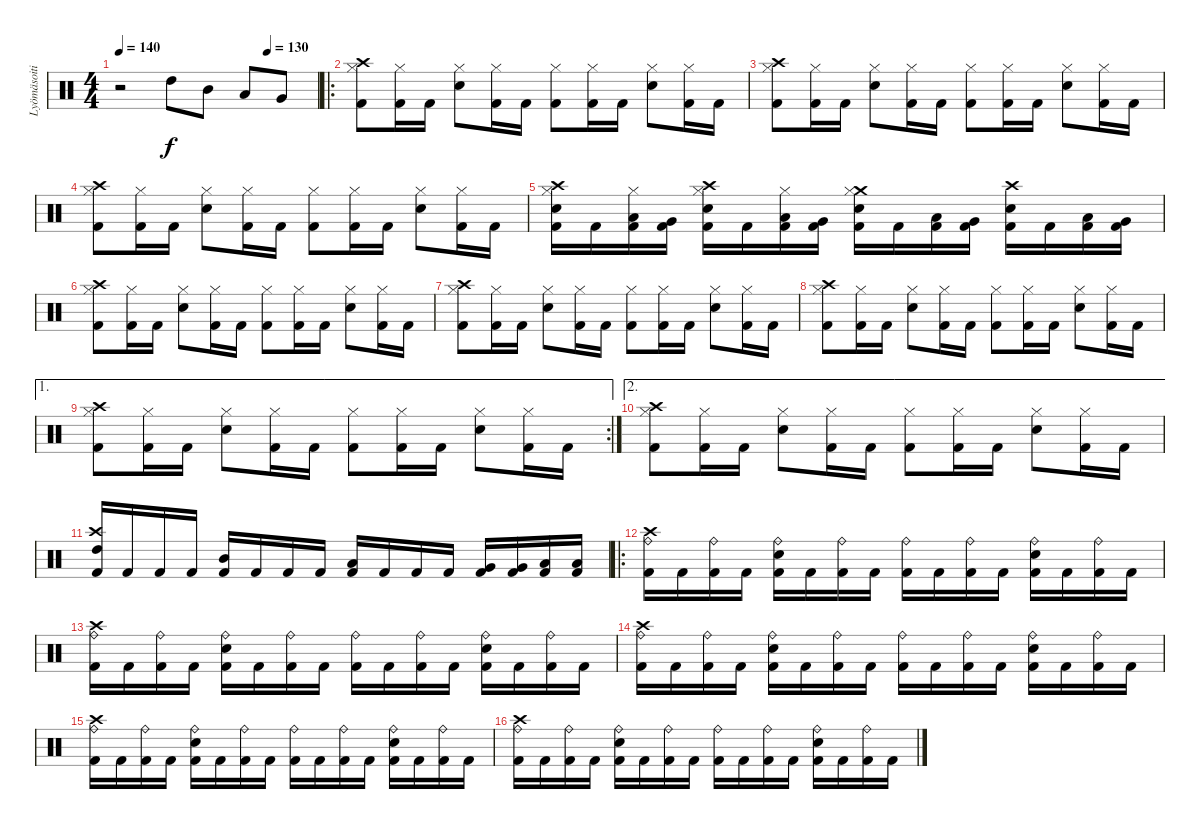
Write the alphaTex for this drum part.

\track ("Lyömäsoitin" "Lyömäsoiti") {instrument percussion}
\staff {score}
\articulation defaults
\ts (4 4)
\tempo 140
\tempo (130 0.75)
\tempo 140
\clef neutral
\ks c
r.2{dy f} "High Tom (hit)".8 "Mid Tom (hit)".8 "Low Tom (hit)".8 "Very Low Tom (hit)".8 |
\ro
("Crash high (hit)" "Hi-Hat (closed)" "Kick (hit) 2").8 ("Hi-Hat (closed)" "Kick (hit) 2").16 "Kick (hit) 2".16 ("Hi-Hat (closed)" "Electric Snare (hit)").8 ("Hi-Hat (closed)" "Kick (hit) 2").16 "Kick (hit) 2".16 ("Hi-Hat (closed)" "Kick (hit) 2").8 ("Hi-Hat (closed)" "Kick (hit) 2").16 "Kick (hit) 2".16 ("Hi-Hat (closed)" "Electric Snare (hit)").8 ("Hi-Hat (closed)" "Kick (hit) 2").16 "Kick (hit) 2".16 |
("Crash high (hit)" "Hi-Hat (closed)" "Kick (hit) 2").8 ("Hi-Hat (closed)" "Kick (hit) 2").16 "Kick (hit) 2".16 ("Hi-Hat (closed)" "Electric Snare (hit)").8 ("Hi-Hat (closed)" "Kick (hit) 2").16 "Kick (hit) 2".16 ("Hi-Hat (closed)" "Kick (hit) 2").8 ("Hi-Hat (closed)" "Kick (hit) 2").16 "Kick (hit) 2".16 ("Hi-Hat (closed)" "Electric Snare (hit)").8 ("Hi-Hat (closed)" "Kick (hit) 2").16 "Kick (hit) 2".16 |
("Crash high (hit)" "Hi-Hat (closed)" "Kick (hit) 2").8 ("Hi-Hat (closed)" "Kick (hit) 2").16 "Kick (hit) 2".16 ("Hi-Hat (closed)" "Electric Snare (hit)").8 ("Hi-Hat (closed)" "Kick (hit) 2").16 "Kick (hit) 2".16 ("Hi-Hat (closed)" "Kick (hit) 2").8 ("Hi-Hat (closed)" "Kick (hit) 2").16 "Kick (hit) 2".16 ("Hi-Hat (closed)" "Electric Snare (hit)").8 ("Hi-Hat (closed)" "Kick (hit) 2").16 "Kick (hit) 2".16 |
("Crash high (hit)" "Hi-Hat (closed)" "Electric Snare (hit)" "Kick (hit) 2").16 "Kick (hit) 2".16 ("Hi-Hat (closed)" "Low Tom (hit)" "Kick (hit) 2").16 ("Very Low Tom (hit)" "Kick (hit) 2").16 ("Crash high (hit)" "Hi-Hat (closed)" "Electric Snare (hit)" "Kick (hit) 2").16 "Kick (hit) 2".16 ("Hi-Hat (closed)" "Low Tom (hit)" "Kick (hit) 2").16 ("Very Low Tom (hit)" "Kick (hit) 2").16 ("Crash medium (hit)" "Hi-Hat (closed)" "Electric Snare (hit)" "Kick (hit) 2").16 "Kick (hit) 2".16 ("Low Tom (hit)" "Kick (hit) 2").16 ("Very Low Tom (hit)" "Kick (hit) 2").16 ("Crash high (hit)" "Electric Snare (hit)" "Kick (hit) 2").16 "Kick (hit) 2".16 ("Low Tom (hit)" "Kick (hit) 2").16 ("Very Low Tom (hit)" "Kick (hit) 2").16 |
("Crash high (hit)" "Hi-Hat (closed)" "Kick (hit) 2").8 ("Hi-Hat (closed)" "Kick (hit) 2").16 "Kick (hit) 2".16 ("Hi-Hat (closed)" "Electric Snare (hit)").8 ("Hi-Hat (closed)" "Kick (hit) 2").16 "Kick (hit) 2".16 ("Hi-Hat (closed)" "Kick (hit) 2").8 ("Hi-Hat (closed)" "Kick (hit) 2").16 "Kick (hit) 2".16 ("Hi-Hat (closed)" "Electric Snare (hit)").8 ("Hi-Hat (closed)" "Kick (hit) 2").16 "Kick (hit) 2".16 |
("Crash high (hit)" "Hi-Hat (closed)" "Kick (hit) 2").8 ("Hi-Hat (closed)" "Kick (hit) 2").16 "Kick (hit) 2".16 ("Hi-Hat (closed)" "Electric Snare (hit)").8 ("Hi-Hat (closed)" "Kick (hit) 2").16 "Kick (hit) 2".16 ("Hi-Hat (closed)" "Kick (hit) 2").8 ("Hi-Hat (closed)" "Kick (hit) 2").16 "Kick (hit) 2".16 ("Hi-Hat (closed)" "Electric Snare (hit)").8 ("Hi-Hat (closed)" "Kick (hit) 2").16 "Kick (hit) 2".16 |
("Crash high (hit)" "Hi-Hat (closed)" "Kick (hit) 2").8 ("Hi-Hat (closed)" "Kick (hit) 2").16 "Kick (hit) 2".16 ("Hi-Hat (closed)" "Electric Snare (hit)").8 ("Hi-Hat (closed)" "Kick (hit) 2").16 "Kick (hit) 2".16 ("Hi-Hat (closed)" "Kick (hit) 2").8 ("Hi-Hat (closed)" "Kick (hit) 2").16 "Kick (hit) 2".16 ("Hi-Hat (closed)" "Electric Snare (hit)").8 ("Hi-Hat (closed)" "Kick (hit) 2").16 "Kick (hit) 2".16 |
\ae 1
\rc 2
("Crash high (hit)" "Hi-Hat (closed)" "Kick (hit) 2").8 ("Hi-Hat (closed)" "Kick (hit) 2").16 "Kick (hit) 2".16 ("Hi-Hat (closed)" "Electric Snare (hit)").8 ("Hi-Hat (closed)" "Kick (hit) 2").16 "Kick (hit) 2".16 ("Hi-Hat (closed)" "Kick (hit) 2").8 ("Hi-Hat (closed)" "Kick (hit) 2").16 "Kick (hit) 2".16 ("Hi-Hat (closed)" "Electric Snare (hit)").8 ("Hi-Hat (closed)" "Kick (hit) 2").16 "Kick (hit) 2".16 |
\ae 2
("Crash high (hit)" "Hi-Hat (closed)" "Kick (hit) 2").8 ("Hi-Hat (closed)" "Kick (hit) 2").16 "Kick (hit) 2".16 ("Hi-Hat (closed)" "Electric Snare (hit)").8 ("Hi-Hat (closed)" "Kick (hit) 2").16 "Kick (hit) 2".16 ("Hi-Hat (closed)" "Kick (hit) 2").8 ("Hi-Hat (closed)" "Kick (hit) 2").16 "Kick (hit) 2".16 ("Hi-Hat (closed)" "Electric Snare (hit)").8 ("Hi-Hat (closed)" "Kick (hit) 2").16 "Kick (hit) 2".16 |
("Crash high (hit)" "High Tom (hit)" "Kick (hit) 2").16 "Kick (hit) 2".16 "Kick (hit) 2".16 "Kick (hit) 2".16 ("Mid Tom (hit)" "Kick (hit) 2").16 "Kick (hit) 2".16 "Kick (hit) 2".16 "Kick (hit) 2".16 ("Low Tom (hit)" "Kick (hit) 2").16 "Kick (hit) 2".16 "Kick (hit) 2".16 "Kick (hit) 2".16 ("Very Low Tom (hit)" "Kick (hit) 2").16 ("Very Low Tom (hit)" "Kick (hit) 2").16 ("Low Floor Tom (hit)" "Kick (hit) 2").16 ("Low Floor Tom (hit)" "Kick (hit) 2").16 |
\ro
("Crash high (hit)" "Ride (bell)" "Kick (hit) 2").16 "Kick (hit) 2".16 ("Ride (bell)" "Kick (hit) 2").16 "Kick (hit) 2".16 ("Ride (bell)" "Electric Snare (hit)" "Kick (hit) 2").16 "Kick (hit) 2".16 ("Ride (bell)" "Kick (hit) 2").16 "Kick (hit) 2".16 ("Ride (bell)" "Kick (hit) 2").16 "Kick (hit) 2".16 ("Ride (bell)" "Kick (hit) 2").16 "Kick (hit) 2".16 ("Ride (bell)" "Electric Snare (hit)" "Kick (hit) 2").16 "Kick (hit) 2".16 ("Ride (bell)" "Kick (hit) 2").16 "Kick (hit) 2".16 |
("Crash high (hit)" "Ride (bell)" "Kick (hit) 2").16 "Kick (hit) 2".16 ("Ride (bell)" "Kick (hit) 2").16 "Kick (hit) 2".16 ("Ride (bell)" "Electric Snare (hit)" "Kick (hit) 2").16 "Kick (hit) 2".16 ("Ride (bell)" "Kick (hit) 2").16 "Kick (hit) 2".16 ("Ride (bell)" "Kick (hit) 2").16 "Kick (hit) 2".16 ("Ride (bell)" "Kick (hit) 2").16 "Kick (hit) 2".16 ("Ride (bell)" "Electric Snare (hit)" "Kick (hit) 2").16 "Kick (hit) 2".16 ("Ride (bell)" "Kick (hit) 2").16 "Kick (hit) 2".16 |
("Crash high (hit)" "Ride (bell)" "Kick (hit) 2").16 "Kick (hit) 2".16 ("Ride (bell)" "Kick (hit) 2").16 "Kick (hit) 2".16 ("Ride (bell)" "Electric Snare (hit)" "Kick (hit) 2").16 "Kick (hit) 2".16 ("Ride (bell)" "Kick (hit) 2").16 "Kick (hit) 2".16 ("Ride (bell)" "Kick (hit) 2").16 "Kick (hit) 2".16 ("Ride (bell)" "Kick (hit) 2").16 "Kick (hit) 2".16 ("Ride (bell)" "Electric Snare (hit)" "Kick (hit) 2").16 "Kick (hit) 2".16 ("Ride (bell)" "Kick (hit) 2").16 "Kick (hit) 2".16 |
("Crash high (hit)" "Ride (bell)" "Kick (hit) 2").16 "Kick (hit) 2".16 ("Ride (bell)" "Kick (hit) 2").16 "Kick (hit) 2".16 ("Ride (bell)" "Electric Snare (hit)" "Kick (hit) 2").16 "Kick (hit) 2".16 ("Ride (bell)" "Kick (hit) 2").16 "Kick (hit) 2".16 ("Ride (bell)" "Kick (hit) 2").16 "Kick (hit) 2".16 ("Ride (bell)" "Kick (hit) 2").16 "Kick (hit) 2".16 ("Ride (bell)" "Electric Snare (hit)" "Kick (hit) 2").16 "Kick (hit) 2".16 ("Ride (bell)" "Kick (hit) 2").16 "Kick (hit) 2".16 |
("Crash high (hit)" "Ride (bell)" "Kick (hit) 2").16 "Kick (hit) 2".16 ("Ride (bell)" "Kick (hit) 2").16 "Kick (hit) 2".16 ("Ride (bell)" "Electric Snare (hit)" "Kick (hit) 2").16 "Kick (hit) 2".16 ("Ride (bell)" "Kick (hit) 2").16 "Kick (hit) 2".16 ("Ride (bell)" "Kick (hit) 2").16 "Kick (hit) 2".16 ("Ride (bell)" "Kick (hit) 2").16 "Kick (hit) 2".16 ("Ride (bell)" "Electric Snare (hit)" "Kick (hit) 2").16 "Kick (hit) 2".16 ("Ride (bell)" "Kick (hit) 2").16 "Kick (hit) 2".16
